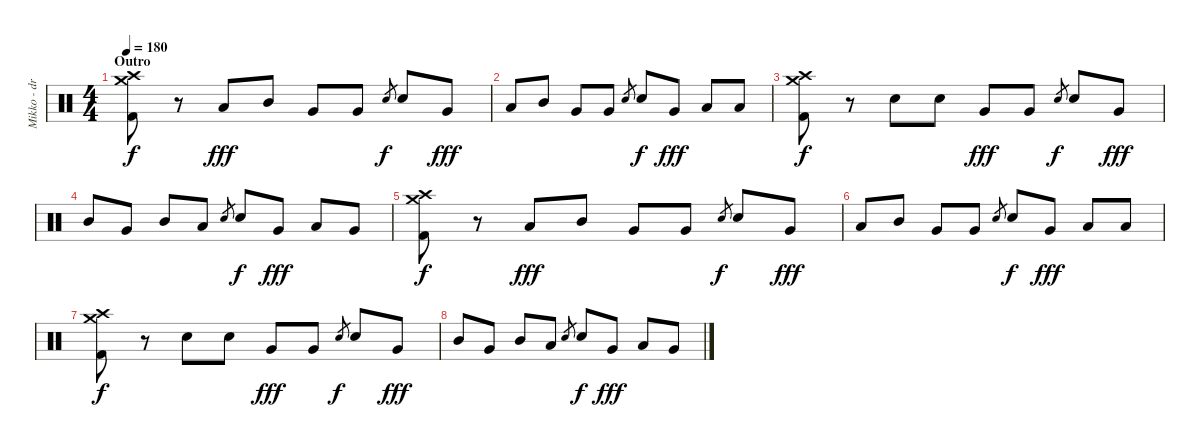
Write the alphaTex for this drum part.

\track ("Mikko - drums" "Mikko - dr") {instrument percussion}
\staff {score}
\articulation defaults
\ts (4 4)
\section ("" "Outro")
\tempo 180
\clef neutral
\ks c
("Crash medium (hit)" "Crash high (hit)" "Kick (hit) 2").8{dy f} r.8 "Low Tom (hit)".8{dy fff} "Mid Tom (hit)".8 "Very Low Tom (hit)".8 "Very Low Tom (hit)".8 "Snare (hit) 2".8{gr dy f} "Snare (hit) 2".8 "Very Low Tom (hit)".8{dy fff} |
"Low Tom (hit)".8 "Mid Tom (hit)".8 "Very Low Tom (hit)".8 "Very Low Tom (hit)".8 "Snare (hit) 2".8{gr} "Snare (hit) 2".8{dy f} "Very Low Tom (hit)".8{dy fff} "Low Tom (hit)".8 "Low Tom (hit)".8 |
("Crash medium (hit)" "Crash high (hit)" "Kick (hit) 2").8{dy f} r.8 "Snare (hit) 2".8 "Snare (hit) 2".8 "Very Low Tom (hit)".8{dy fff} "Very Low Tom (hit)".8 "Snare (hit) 2".8{gr dy f} "Snare (hit) 2".8 "Very Low Tom (hit)".8{dy fff} |
"Mid Tom (hit)".8 "Very Low Tom (hit)".8 "Mid Tom (hit)".8 "Low Tom (hit)".8 "Snare (hit) 2".8{gr} "Snare (hit) 2".8{dy f} "Very Low Tom (hit)".8{dy fff} "Low Tom (hit)".8 "Very Low Tom (hit)".8 |
("Crash medium (hit)" "Crash high (hit)" "Kick (hit) 2").8{dy f} r.8 "Low Tom (hit)".8{dy fff} "Mid Tom (hit)".8 "Very Low Tom (hit)".8 "Very Low Tom (hit)".8 "Snare (hit) 2".8{gr dy f} "Snare (hit) 2".8 "Very Low Tom (hit)".8{dy fff} |
"Low Tom (hit)".8 "Mid Tom (hit)".8 "Very Low Tom (hit)".8 "Very Low Tom (hit)".8 "Snare (hit) 2".8{gr} "Snare (hit) 2".8{dy f} "Very Low Tom (hit)".8{dy fff} "Low Tom (hit)".8 "Low Tom (hit)".8 |
("Crash medium (hit)" "Crash high (hit)" "Kick (hit) 2").8{dy f} r.8 "Snare (hit) 2".8 "Snare (hit) 2".8 "Very Low Tom (hit)".8{dy fff} "Very Low Tom (hit)".8 "Snare (hit) 2".8{gr dy f} "Snare (hit) 2".8 "Very Low Tom (hit)".8{dy fff} |
"Mid Tom (hit)".8 "Very Low Tom (hit)".8 "Mid Tom (hit)".8 "Low Tom (hit)".8 "Snare (hit) 2".8{gr} "Snare (hit) 2".8{dy f} "Very Low Tom (hit)".8{dy fff} "Low Tom (hit)".8 "Very Low Tom (hit)".8
